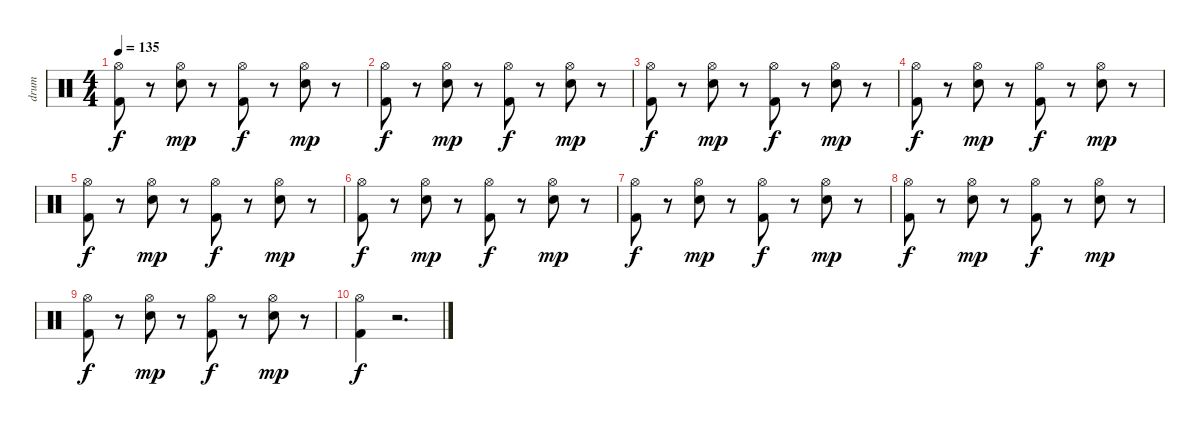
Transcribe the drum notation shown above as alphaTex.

\track ("drum" "drum") {instrument percussion}
\staff {score}
\articulation defaults
\ts (4 4)
\tempo 135
\clef neutral
\ks c
("Hi-Hat (open)" "Kick (hit) 2").8{dy f} r.8 ("Hi-Hat (open)" "Electric Snare (hit)").8{dy mp} r.8 ("Hi-Hat (open)" "Kick (hit) 2").8{dy f} r.8 ("Hi-Hat (open)" "Electric Snare (hit)").8{dy mp} r.8 |
("Hi-Hat (open)" "Kick (hit) 2").8{dy f} r.8 ("Hi-Hat (open)" "Electric Snare (hit)").8{dy mp} r.8 ("Hi-Hat (open)" "Kick (hit) 2").8{dy f} r.8 ("Hi-Hat (open)" "Electric Snare (hit)").8{dy mp} r.8 |
("Hi-Hat (open)" "Kick (hit) 2").8{dy f} r.8 ("Hi-Hat (open)" "Electric Snare (hit)").8{dy mp} r.8 ("Hi-Hat (open)" "Kick (hit) 2").8{dy f} r.8 ("Hi-Hat (open)" "Electric Snare (hit)").8{dy mp} r.8 |
("Hi-Hat (open)" "Kick (hit) 2").8{dy f} r.8 ("Hi-Hat (open)" "Electric Snare (hit)").8{dy mp} r.8 ("Hi-Hat (open)" "Kick (hit) 2").8{dy f} r.8 ("Hi-Hat (open)" "Electric Snare (hit)").8{dy mp} r.8 |
("Hi-Hat (open)" "Kick (hit) 2").8{dy f} r.8 ("Hi-Hat (open)" "Electric Snare (hit)").8{dy mp} r.8 ("Hi-Hat (open)" "Kick (hit) 2").8{dy f} r.8 ("Hi-Hat (open)" "Electric Snare (hit)").8{dy mp} r.8 |
("Hi-Hat (open)" "Kick (hit) 2").8{dy f} r.8 ("Hi-Hat (open)" "Electric Snare (hit)").8{dy mp} r.8 ("Hi-Hat (open)" "Kick (hit) 2").8{dy f} r.8 ("Hi-Hat (open)" "Electric Snare (hit)").8{dy mp} r.8 |
("Hi-Hat (open)" "Kick (hit) 2").8{dy f} r.8 ("Hi-Hat (open)" "Electric Snare (hit)").8{dy mp} r.8 ("Hi-Hat (open)" "Kick (hit) 2").8{dy f} r.8 ("Hi-Hat (open)" "Electric Snare (hit)").8{dy mp} r.8 |
("Hi-Hat (open)" "Kick (hit) 2").8{dy f} r.8 ("Hi-Hat (open)" "Electric Snare (hit)").8{dy mp} r.8 ("Hi-Hat (open)" "Kick (hit) 2").8{dy f} r.8 ("Hi-Hat (open)" "Electric Snare (hit)").8{dy mp} r.8 |
("Hi-Hat (open)" "Kick (hit) 2").8{dy f} r.8 ("Hi-Hat (open)" "Electric Snare (hit)").8{dy mp} r.8 ("Hi-Hat (open)" "Kick (hit) 2").8{dy f} r.8 ("Hi-Hat (open)" "Electric Snare (hit)").8{dy mp} r.8 |
("Hi-Hat (open)" "Kick (hit) 2").4{dy f} r.2{d}
